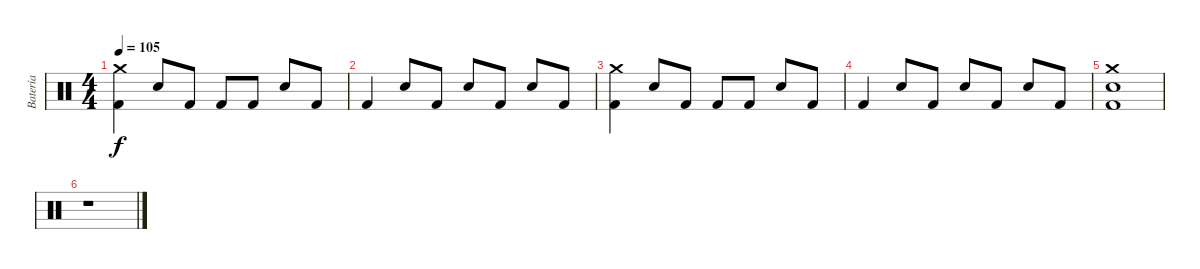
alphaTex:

\track ("Batería" "Batería") {instrument percussion}
\staff {score}
\articulation defaults
\ts (4 4)
\tempo 105
\clef neutral
\ks c
("Crash medium (hit)" "Kick (hit) 2").4{dy f} "Snare (hit) 2".8 "Kick (hit) 2".8 "Kick (hit) 2".8 "Kick (hit) 2".8 "Snare (hit) 2".8 "Kick (hit) 2".8 |
"Kick (hit) 2".4 "Snare (hit) 2".8 "Kick (hit) 2".8 "Electric Snare (hit)".8 "Kick (hit) 2".8 "Snare (hit) 2".8 "Kick (hit) 2".8 |
("Crash medium (hit)" "Kick (hit) 2").4 "Snare (hit) 2".8 "Kick (hit) 2".8 "Kick (hit) 2".8 "Kick (hit) 2".8 "Snare (hit) 2".8 "Kick (hit) 2".8 |
"Kick (hit) 2".4 "Snare (hit) 2".8 "Kick (hit) 2".8 "Snare (hit) 2".8 "Kick (hit) 2".8 "Snare (hit) 2".8 "Kick (hit) 2".8 |
("Kick (hit) 2" "Crash medium (hit)" "Snare (hit) 2").1 |
r.1
